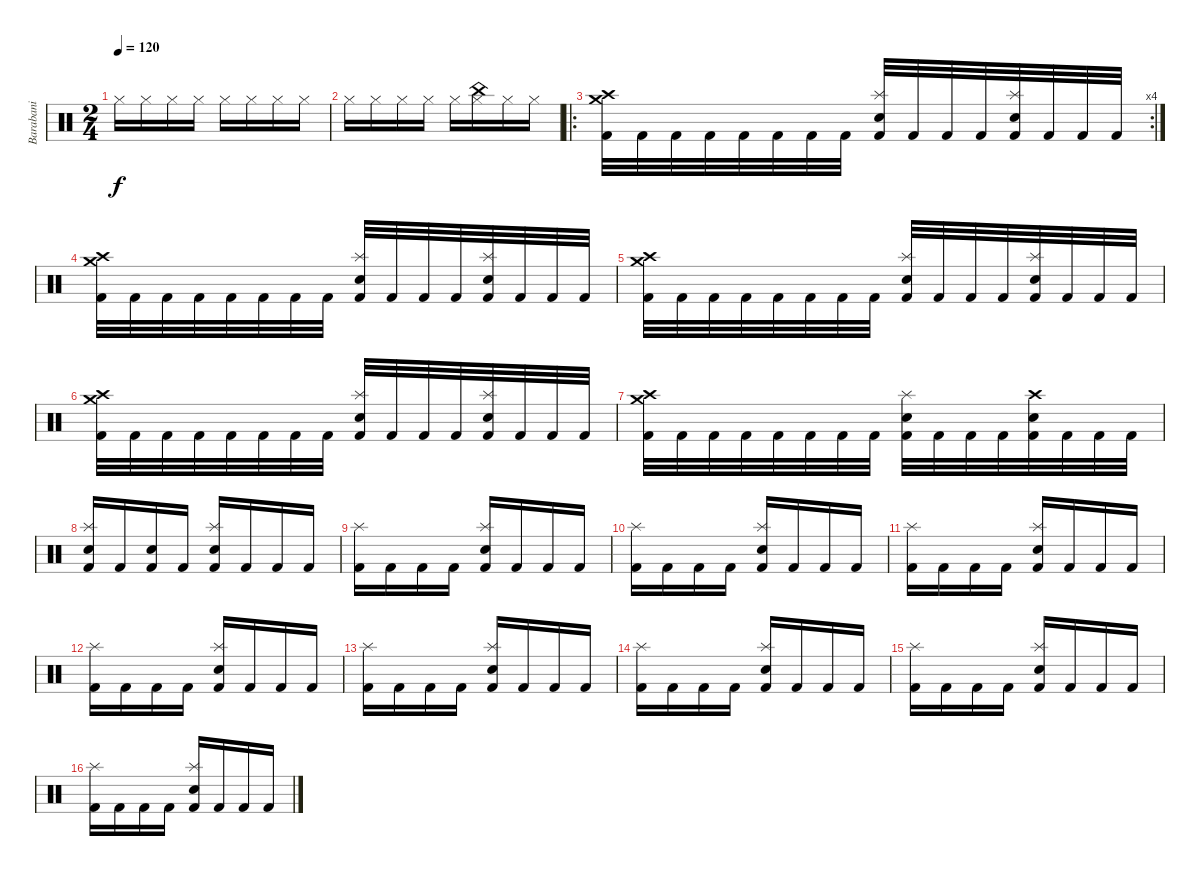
\track ("Barabani" "Barabani") {instrument percussion}
\staff {score}
\articulation defaults
\ts (2 4)
\tempo 120
\clef neutral
\ks c "Hi-Hat (closed)".16{dy f} "Hi-Hat (closed)".16 "Hi-Hat (closed)".16 "Hi-Hat (closed)".16 "Hi-Hat (closed)".16 "Hi-Hat (closed)".16 "Hi-Hat (closed)".16 "Hi-Hat (closed)".16
|
"Hi-Hat (closed)".16 "Hi-Hat (closed)".16 "Hi-Hat (closed)".16 "Hi-Hat (closed)".16 "Hi-Hat (closed)".16 ("China (hit)" "Hi-Hat (closed)").16 "Hi-Hat (closed)".16 "Hi-Hat (closed)".16 |
\ro
\rc 4
("Crash high (hit)" "Crash medium (hit)" "Kick (hit) 2").32 "Kick (hit) 2".32 "Kick (hit) 2".32 "Kick (hit) 2".32 "Kick (hit) 2".32 "Kick (hit) 2".32 "Kick (hit) 2".32 "Kick (hit) 2".32 ("Splash (hit)" "Electric Snare (hit)" "Kick (hit) 2").32 "Kick (hit) 2".32 "Kick (hit) 2".32 "Kick (hit) 2".32 ("Splash (hit)" "Electric Snare (hit)" "Kick (hit) 2").32 "Kick (hit) 2".32 "Kick (hit) 2".32 "Kick (hit) 2".32 |
("Crash high (hit)" "Crash medium (hit)" "Kick (hit) 2").32 "Kick (hit) 2".32 "Kick (hit) 2".32 "Kick (hit) 2".32 "Kick (hit) 2".32 "Kick (hit) 2".32 "Kick (hit) 2".32 "Kick (hit) 2".32 ("Splash (hit)" "Electric Snare (hit)" "Kick (hit) 2").32 "Kick (hit) 2".32 "Kick (hit) 2".32 "Kick (hit) 2".32 ("Splash (hit)" "Electric Snare (hit)" "Kick (hit) 2").32 "Kick (hit) 2".32 "Kick (hit) 2".32 "Kick (hit) 2".32 |
("Crash high (hit)" "Crash medium (hit)" "Kick (hit) 2").32 "Kick (hit) 2".32 "Kick (hit) 2".32 "Kick (hit) 2".32 "Kick (hit) 2".32 "Kick (hit) 2".32 "Kick (hit) 2".32 "Kick (hit) 2".32 ("Splash (hit)" "Electric Snare (hit)" "Kick (hit) 2").32 "Kick (hit) 2".32 "Kick (hit) 2".32 "Kick (hit) 2".32 ("Splash (hit)" "Electric Snare (hit)" "Kick (hit) 2").32 "Kick (hit) 2".32 "Kick (hit) 2".32 "Kick (hit) 2".32 |
("Crash high (hit)" "Crash medium (hit)" "Kick (hit) 2").32 "Kick (hit) 2".32 "Kick (hit) 2".32 "Kick (hit) 2".32 "Kick (hit) 2".32 "Kick (hit) 2".32 "Kick (hit) 2".32 "Kick (hit) 2".32 ("Splash (hit)" "Electric Snare (hit)" "Kick (hit) 2").32 "Kick (hit) 2".32 "Kick (hit) 2".32 "Kick (hit) 2".32 ("Splash (hit)" "Electric Snare (hit)" "Kick (hit) 2").32 "Kick (hit) 2".32 "Kick (hit) 2".32 "Kick (hit) 2".32 |
("Crash high (hit)" "Crash medium (hit)" "Kick (hit) 2").32 "Kick (hit) 2".32 "Kick (hit) 2".32 "Kick (hit) 2".32 "Kick (hit) 2".32 "Kick (hit) 2".32 "Kick (hit) 2".32 "Kick (hit) 2".32 ("Splash (hit)" "Electric Snare (hit)" "Kick (hit) 2").32 "Kick (hit) 2".32 "Kick (hit) 2".32 "Kick (hit) 2".32 ("Crash high (hit)" "Electric Snare (hit)" "Kick (hit) 2").32 "Kick (hit) 2".32 "Kick (hit) 2".32 "Kick (hit) 2".32 |
("Splash (hit)" "Electric Snare (hit)" "Kick (hit) 2").16 "Kick (hit) 2".16 ("Electric Snare (hit)" "Kick (hit) 2").16 "Kick (hit) 2".16 ("Splash (hit)" "Electric Snare (hit)" "Kick (hit) 2").16 "Kick (hit) 2".16 "Kick (hit) 2".16 "Kick (hit) 2".16 |
("Splash (hit)" "Kick (hit) 2").16 "Kick (hit) 2".16 "Kick (hit) 2".16 "Kick (hit) 2".16 ("Splash (hit)" "Electric Snare (hit)" "Kick (hit) 2").16 "Kick (hit) 2".16 "Kick (hit) 2".16 "Kick (hit) 2".16 |
("Splash (hit)" "Kick (hit) 2").16 "Kick (hit) 2".16 "Kick (hit) 2".16 "Kick (hit) 2".16 ("Splash (hit)" "Electric Snare (hit)" "Kick (hit) 2").16 "Kick (hit) 2".16 "Kick (hit) 2".16 "Kick (hit) 2".16 |
("Splash (hit)" "Kick (hit) 2").16 "Kick (hit) 2".16 "Kick (hit) 2".16 "Kick (hit) 2".16 ("Splash (hit)" "Electric Snare (hit)" "Kick (hit) 2").16 "Kick (hit) 2".16 "Kick (hit) 2".16 "Kick (hit) 2".16 |
("Splash (hit)" "Kick (hit) 2").16 "Kick (hit) 2".16 "Kick (hit) 2".16 "Kick (hit) 2".16 ("Splash (hit)" "Electric Snare (hit)" "Kick (hit) 2").16 "Kick (hit) 2".16 "Kick (hit) 2".16 "Kick (hit) 2".16 |
("Splash (hit)" "Kick (hit) 2").16 "Kick (hit) 2".16 "Kick (hit) 2".16 "Kick (hit) 2".16 ("Splash (hit)" "Electric Snare (hit)" "Kick (hit) 2").16 "Kick (hit) 2".16 "Kick (hit) 2".16 "Kick (hit) 2".16 |
("Splash (hit)" "Kick (hit) 2").16 "Kick (hit) 2".16 "Kick (hit) 2".16 "Kick (hit) 2".16 ("Splash (hit)" "Electric Snare (hit)" "Kick (hit) 2").16 "Kick (hit) 2".16 "Kick (hit) 2".16 "Kick (hit) 2".16 |
("Splash (hit)" "Kick (hit) 2").16 "Kick (hit) 2".16 "Kick (hit) 2".16 "Kick (hit) 2".16 ("Splash (hit)" "Electric Snare (hit)" "Kick (hit) 2").16 "Kick (hit) 2".16 "Kick (hit) 2".16 "Kick (hit) 2".16 |
("Splash (hit)" "Kick (hit) 2").16 "Kick (hit) 2".16 "Kick (hit) 2".16 "Kick (hit) 2".16 ("Splash (hit)" "Electric Snare (hit)" "Kick (hit) 2").16 "Kick (hit) 2".16 "Kick (hit) 2".16 "Kick (hit) 2".16
